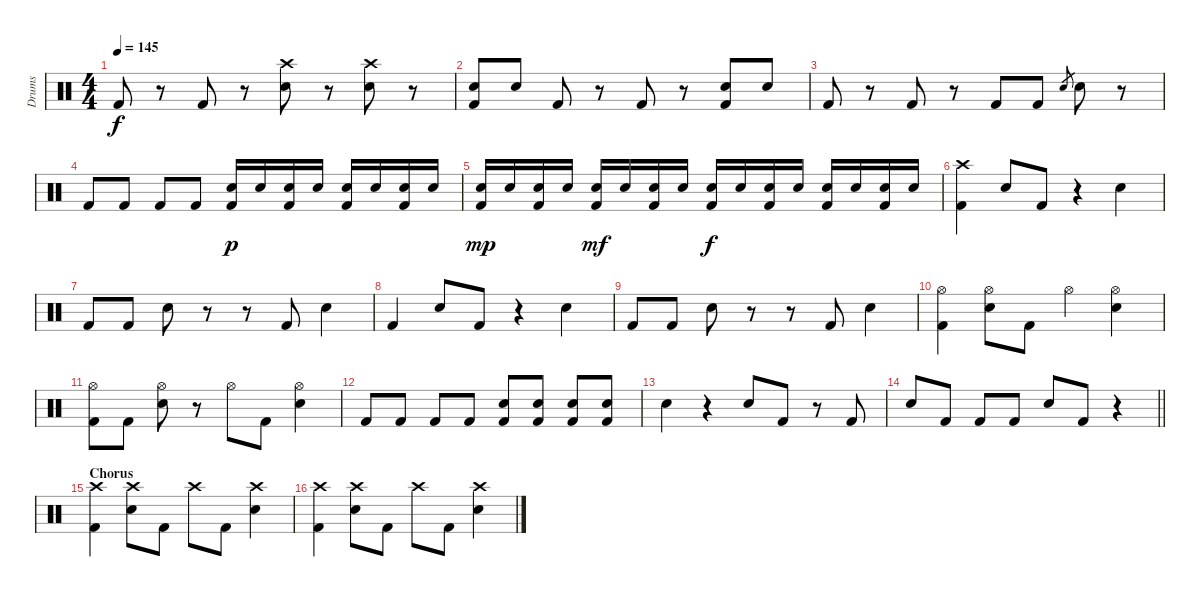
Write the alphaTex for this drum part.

\track ("Drums" "Drums") {instrument percussion}
\staff {score}
\articulation defaults
\ts (4 4)
\tempo 145
\clef neutral
\ks c "Kick (hit) 2".8{dy f}
r.8 "Kick (hit) 2".8 r.8 ("Crash high (hit)" "Electric Snare (hit)").8 r.8 ("Crash high (hit)" "Electric Snare (hit)").8 r.8 |
("Electric Snare (hit)" "Kick (hit) 2").8 "Electric Snare (hit)".8 "Kick (hit) 2".8 r.8 "Kick (hit) 2".8 r.8 ("Electric Snare (hit)" "Kick (hit) 2").8 "Electric Snare (hit)".8 |
"Kick (hit) 2".8 r.8 "Kick (hit) 2".8 r.8 "Kick (hit) 2".8 "Kick (hit) 2".8 "Electric Snare (hit)".8{gr} "Electric Snare (hit)".8 r.8 |
"Kick (hit) 2".8 "Kick (hit) 2".8 "Kick (hit) 2".8 "Kick (hit) 2".8 ("Electric Snare (hit)" "Kick (hit) 2").16{dy p} "Electric Snare (hit)".16 ("Electric Snare (hit)" "Kick (hit) 2").16 "Electric Snare (hit)".16 ("Electric Snare (hit)" "Kick (hit) 2").16 "Electric Snare (hit)".16 ("Electric Snare (hit)" "Kick (hit) 2").16 "Electric Snare (hit)".16 |
("Electric Snare (hit)" "Kick (hit) 2").16{dy mp} "Electric Snare (hit)".16 ("Electric Snare (hit)" "Kick (hit) 2").16 "Electric Snare (hit)".16 ("Electric Snare (hit)" "Kick (hit) 2").16{dy mf} "Electric Snare (hit)".16 ("Electric Snare (hit)" "Kick (hit) 2").16 "Electric Snare (hit)".16 ("Electric Snare (hit)" "Kick (hit) 2").16{dy f} "Electric Snare (hit)".16 ("Electric Snare (hit)" "Kick (hit) 2").16 "Electric Snare (hit)".16 ("Electric Snare (hit)" "Kick (hit) 2").16 "Electric Snare (hit)".16 ("Electric Snare (hit)" "Kick (hit) 2").16 "Electric Snare (hit)".16 |
("Crash high (hit)" "Kick (hit) 2").4{volume 15} "Electric Snare (hit)".8 "Kick (hit) 2".8 r.4 "Electric Snare (hit)".4 |
"Kick (hit) 2".8 "Kick (hit) 2".8 "Electric Snare (hit)".8 r.8 r.8 "Kick (hit) 2".8 "Electric Snare (hit)".4 |
"Kick (hit) 2".4 "Electric Snare (hit)".8 "Kick (hit) 2".8 r.4 "Electric Snare (hit)".4 |
"Kick (hit) 2".8 "Kick (hit) 2".8 "Electric Snare (hit)".8 r.8 r.8 "Kick (hit) 2".8 "Electric Snare (hit)".4 |
("Hi-Hat (open)" "Kick (hit) 2").4 ("Hi-Hat (open)" "Electric Snare (hit)").8 "Kick (hit) 2".8 "Hi-Hat (open)".4 ("Hi-Hat (open)" "Electric Snare (hit)").4 |
("Hi-Hat (open)" "Kick (hit) 2").8 "Kick (hit) 2".8 ("Hi-Hat (open)" "Electric Snare (hit)").8 r.8 "Hi-Hat (open)".8 "Kick (hit) 2".8 ("Hi-Hat (open)" "Electric Snare (hit)").4 |
"Kick (hit) 2".8 "Kick (hit) 2".8 "Kick (hit) 2".8 "Kick (hit) 2".8 ("Electric Snare (hit)" "Kick (hit) 2").8 ("Electric Snare (hit)" "Kick (hit) 2").8 ("Electric Snare (hit)" "Kick (hit) 2").8 ("Electric Snare (hit)" "Kick (hit) 2").8 |
"Electric Snare (hit)".4 r.4 "Electric Snare (hit)".8 "Kick (hit) 2".8 r.8 "Kick (hit) 2".8 |
\barLineRight lightlight "Electric Snare (hit)".8 "Kick (hit) 2".8 "Kick (hit) 2".8 "Kick (hit) 2".8 "Electric Snare (hit)".8 "Kick (hit) 2".8
r.4 |
\section ("" "Chorus")
("Crash high (hit)" "Kick (hit) 2").4{volume 13} ("Crash high (hit)" "Electric Snare (hit)").8 "Kick (hit) 2".8 "Crash high (hit)".8 "Kick (hit) 2".8 ("Crash high (hit)" "Electric Snare (hit)").4 |
("Crash high (hit)" "Kick (hit) 2").4 ("Crash high (hit)" "Electric Snare (hit)").8 "Kick (hit) 2".8 "Crash high (hit)".8 "Kick (hit) 2".8 ("Crash high (hit)" "Electric Snare (hit)").4
